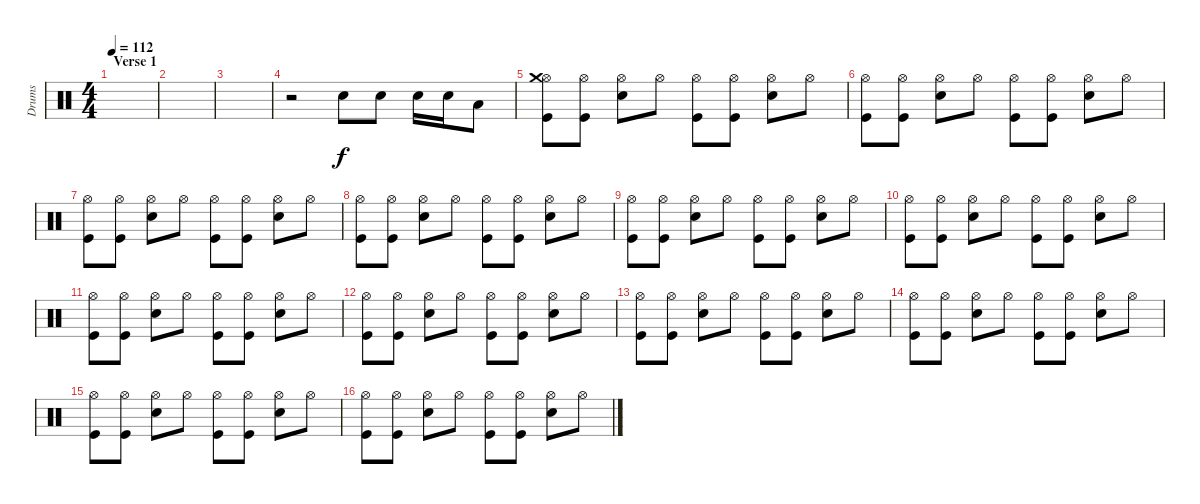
\track ("Drums" "Drums") {instrument percussion}
\staff {score}
\articulation defaults
\ts (4 4)
\section ("" "Verse 1")
\tempo 112
\clef neutral
\ks c
|
|
|
r.2 "Snare (hit) 2".8 "Snare (hit) 2".8 "Snare (hit) 2".16 "Snare (hit) 2".16 "Low Tom (hit)".8 |
("Hi-Hat (open)" "Crash medium (hit)" "Kick (hit)").8 ("Hi-Hat (open)" "Kick (hit)").8 ("Hi-Hat (open)" "Snare (hit) 2").8 "Hi-Hat (open)".8 ("Hi-Hat (open)" "Kick (hit)").8 ("Hi-Hat (open)" "Kick (hit)").8 ("Hi-Hat (open)" "Snare (hit) 2").8 "Hi-Hat (open)".8 |
("Hi-Hat (open)" "Kick (hit)").8 ("Hi-Hat (open)" "Kick (hit)").8 ("Hi-Hat (open)" "Snare (hit) 2").8 "Hi-Hat (open)".8 ("Hi-Hat (open)" "Kick (hit)").8 ("Hi-Hat (open)" "Kick (hit)").8 ("Hi-Hat (open)" "Snare (hit) 2").8 "Hi-Hat (open)".8 |
("Hi-Hat (open)" "Kick (hit)").8 ("Hi-Hat (open)" "Kick (hit)").8 ("Hi-Hat (open)" "Snare (hit) 2").8 "Hi-Hat (open)".8 ("Hi-Hat (open)" "Kick (hit)").8 ("Hi-Hat (open)" "Kick (hit)").8 ("Hi-Hat (open)" "Snare (hit) 2").8 "Hi-Hat (open)".8 |
("Hi-Hat (open)" "Kick (hit)").8 ("Hi-Hat (open)" "Kick (hit)").8 ("Hi-Hat (open)" "Snare (hit) 2").8 "Hi-Hat (open)".8 ("Hi-Hat (open)" "Kick (hit)").8 ("Hi-Hat (open)" "Kick (hit)").8 ("Hi-Hat (open)" "Snare (hit) 2").8 "Hi-Hat (open)".8 |
("Hi-Hat (open)" "Kick (hit)").8 ("Hi-Hat (open)" "Kick (hit)").8 ("Hi-Hat (open)" "Snare (hit) 2").8 "Hi-Hat (open)".8 ("Hi-Hat (open)" "Kick (hit)").8 ("Hi-Hat (open)" "Kick (hit)").8 ("Hi-Hat (open)" "Snare (hit) 2").8 "Hi-Hat (open)".8 |
("Hi-Hat (open)" "Kick (hit)").8 ("Hi-Hat (open)" "Kick (hit)").8 ("Hi-Hat (open)" "Snare (hit) 2").8 "Hi-Hat (open)".8 ("Hi-Hat (open)" "Kick (hit)").8 ("Hi-Hat (open)" "Kick (hit)").8 ("Hi-Hat (open)" "Snare (hit) 2").8 "Hi-Hat (open)".8 |
("Hi-Hat (open)" "Kick (hit)").8 ("Hi-Hat (open)" "Kick (hit)").8 ("Hi-Hat (open)" "Snare (hit) 2").8 "Hi-Hat (open)".8 ("Hi-Hat (open)" "Kick (hit)").8 ("Hi-Hat (open)" "Kick (hit)").8 ("Hi-Hat (open)" "Snare (hit) 2").8 "Hi-Hat (open)".8 |
("Hi-Hat (open)" "Kick (hit)").8 ("Hi-Hat (open)" "Kick (hit)").8 ("Hi-Hat (open)" "Snare (hit) 2").8 "Hi-Hat (open)".8 ("Hi-Hat (open)" "Kick (hit)").8 ("Hi-Hat (open)" "Kick (hit)").8 ("Hi-Hat (open)" "Snare (hit) 2").8 "Hi-Hat (open)".8 |
("Hi-Hat (open)" "Kick (hit)").8 ("Hi-Hat (open)" "Kick (hit)").8 ("Hi-Hat (open)" "Snare (hit) 2").8 "Hi-Hat (open)".8 ("Hi-Hat (open)" "Kick (hit)").8 ("Hi-Hat (open)" "Kick (hit)").8 ("Hi-Hat (open)" "Snare (hit) 2").8 "Hi-Hat (open)".8 |
("Hi-Hat (open)" "Kick (hit)").8 ("Hi-Hat (open)" "Kick (hit)").8 ("Hi-Hat (open)" "Snare (hit) 2").8 "Hi-Hat (open)".8 ("Hi-Hat (open)" "Kick (hit)").8 ("Hi-Hat (open)" "Kick (hit)").8 ("Hi-Hat (open)" "Snare (hit) 2").8 "Hi-Hat (open)".8 |
("Hi-Hat (open)" "Kick (hit)").8 ("Hi-Hat (open)" "Kick (hit)").8 ("Hi-Hat (open)" "Snare (hit) 2").8 "Hi-Hat (open)".8 ("Hi-Hat (open)" "Kick (hit)").8 ("Hi-Hat (open)" "Kick (hit)").8 ("Hi-Hat (open)" "Snare (hit) 2").8 "Hi-Hat (open)".8 |
\section ("" "")
("Hi-Hat (open)" "Kick (hit)").8 ("Hi-Hat (open)" "Kick (hit)").8 ("Hi-Hat (open)" "Snare (hit) 2").8 "Hi-Hat (open)".8 ("Hi-Hat (open)" "Kick (hit)").8 ("Hi-Hat (open)" "Kick (hit)").8 ("Hi-Hat (open)" "Snare (hit) 2").8 "Hi-Hat (open)".8
